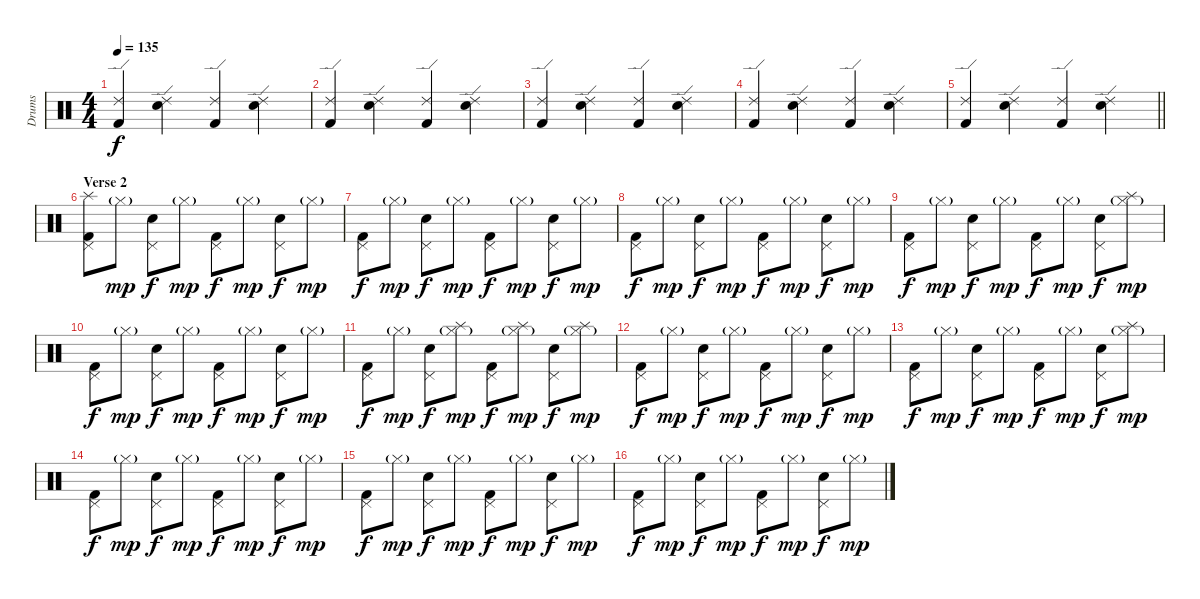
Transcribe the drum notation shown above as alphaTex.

\track ("Drums" "Drums") {instrument percussion}
\staff {score}
\articulation defaults
\ts (4 4)
\tempo 135
\clef neutral
\ks c
("Kick (hit) 2" "Ride (edge) 2").4{dy f} ("Snare (hit) 2" "Ride (edge) 2").4 ("Kick (hit) 2" "Ride (edge) 2").4 ("Snare (hit) 2" "Ride (edge) 2").4 |
("Kick (hit) 2" "Ride (edge) 2").4 ("Snare (hit) 2" "Ride (edge) 2").4 ("Kick (hit) 2" "Ride (edge) 2").4 ("Snare (hit) 2" "Ride (edge) 2").4 |
("Kick (hit) 2" "Ride (edge) 2").4 ("Snare (hit) 2" "Ride (edge) 2").4 ("Kick (hit) 2" "Ride (edge) 2").4 ("Snare (hit) 2" "Ride (edge) 2").4 |
("Kick (hit) 2" "Ride (edge) 2").4 ("Snare (hit) 2" "Ride (edge) 2").4 ("Kick (hit) 2" "Ride (edge) 2").4 ("Snare (hit) 2" "Ride (edge) 2").4 |
\barLineRight lightlight
("Kick (hit) 2" "Ride (edge) 2").4 ("Snare (hit) 2" "Ride (edge) 2").4 ("Kick (hit) 2" "Ride (edge) 2").4 ("Snare (hit) 2" "Ride (edge) 2").4 |
\section ("" "Verse 2")
("Kick (hit) 2" "Pedal Hi-Hat (hit)" "Splash (hit)").8 "Hi-Hat (closed)"{g}.8{dy mp} ("Snare (hit) 2" "Pedal Hi-Hat (hit)").8{dy f} "Hi-Hat (closed)"{g}.8{dy mp} ("Kick (hit) 2" "Pedal Hi-Hat (hit)").8{dy f} "Hi-Hat (closed)"{g}.8{dy mp} ("Snare (hit) 2" "Pedal Hi-Hat (hit)").8{dy f} "Hi-Hat (closed)"{g}.8{dy mp} |
("Kick (hit) 2" "Pedal Hi-Hat (hit)").8{dy f} "Hi-Hat (closed)"{g}.8{dy mp} ("Snare (hit) 2" "Pedal Hi-Hat (hit)").8{dy f} "Hi-Hat (closed)"{g}.8{dy mp} ("Kick (hit) 2" "Pedal Hi-Hat (hit)").8{dy f} "Hi-Hat (closed)"{g}.8{dy mp} ("Snare (hit) 2" "Pedal Hi-Hat (hit)").8{dy f} "Hi-Hat (closed)"{g}.8{dy mp} |
("Kick (hit) 2" "Pedal Hi-Hat (hit)").8{dy f} "Hi-Hat (closed)"{g}.8{dy mp} ("Snare (hit) 2" "Pedal Hi-Hat (hit)").8{dy f} "Hi-Hat (closed)"{g}.8{dy mp} ("Kick (hit) 2" "Pedal Hi-Hat (hit)").8{dy f} "Hi-Hat (closed)"{g}.8{dy mp} ("Snare (hit) 2" "Pedal Hi-Hat (hit)").8{dy f} "Hi-Hat (closed)"{g}.8{dy mp} |
("Kick (hit) 2" "Pedal Hi-Hat (hit)").8{dy f} "Hi-Hat (closed)"{g}.8{dy mp} ("Snare (hit) 2" "Pedal Hi-Hat (hit)").8{dy f} "Hi-Hat (closed)"{g}.8{dy mp} ("Kick (hit) 2" "Pedal Hi-Hat (hit)").8{dy f} "Hi-Hat (closed)"{g}.8{dy mp} ("Snare (hit) 2" "Pedal Hi-Hat (hit)").8{dy f} ("Hi-Hat (closed)"{g} "Splash (hit)").8{dy mp} |
("Kick (hit) 2" "Pedal Hi-Hat (hit)").8{dy f} "Hi-Hat (closed)"{g}.8{dy mp} ("Snare (hit) 2" "Pedal Hi-Hat (hit)").8{dy f} "Hi-Hat (closed)"{g}.8{dy mp} ("Kick (hit) 2" "Pedal Hi-Hat (hit)").8{dy f} "Hi-Hat (closed)"{g}.8{dy mp} ("Snare (hit) 2" "Pedal Hi-Hat (hit)").8{dy f} "Hi-Hat (closed)"{g}.8{dy mp} |
("Kick (hit) 2" "Pedal Hi-Hat (hit)").8{dy f} "Hi-Hat (closed)"{g}.8{dy mp} ("Snare (hit) 2" "Pedal Hi-Hat (hit)").8{dy f} ("Hi-Hat (closed)"{g} "Splash (hit)").8{dy mp} ("Kick (hit) 2" "Pedal Hi-Hat (hit)").8{dy f} ("Hi-Hat (closed)"{g} "Splash (hit)").8{dy mp} ("Snare (hit) 2" "Pedal Hi-Hat (hit)").8{dy f} ("Hi-Hat (closed)"{g} "Splash (hit)").8{dy mp} |
("Kick (hit) 2" "Pedal Hi-Hat (hit)").8{dy f} "Hi-Hat (closed)"{g}.8{dy mp} ("Snare (hit) 2" "Pedal Hi-Hat (hit)").8{dy f} "Hi-Hat (closed)"{g}.8{dy mp} ("Kick (hit) 2" "Pedal Hi-Hat (hit)").8{dy f} "Hi-Hat (closed)"{g}.8{dy mp} ("Snare (hit) 2" "Pedal Hi-Hat (hit)").8{dy f} "Hi-Hat (closed)"{g}.8{dy mp} |
("Kick (hit) 2" "Pedal Hi-Hat (hit)").8{dy f} "Hi-Hat (closed)"{g}.8{dy mp} ("Snare (hit) 2" "Pedal Hi-Hat (hit)").8{dy f} "Hi-Hat (closed)"{g}.8{dy mp} ("Kick (hit) 2" "Pedal Hi-Hat (hit)").8{dy f} "Hi-Hat (closed)"{g}.8{dy mp} ("Snare (hit) 2" "Pedal Hi-Hat (hit)").8{dy f} ("Hi-Hat (closed)"{g} "Splash (hit)").8{dy mp} |
("Kick (hit) 2" "Pedal Hi-Hat (hit)").8{dy f} "Hi-Hat (closed)"{g}.8{dy mp} ("Snare (hit) 2" "Pedal Hi-Hat (hit)").8{dy f} "Hi-Hat (closed)"{g}.8{dy mp} ("Kick (hit) 2" "Pedal Hi-Hat (hit)").8{dy f} "Hi-Hat (closed)"{g}.8{dy mp} ("Snare (hit) 2" "Pedal Hi-Hat (hit)").8{dy f} "Hi-Hat (closed)"{g}.8{dy mp} |
("Kick (hit) 2" "Pedal Hi-Hat (hit)").8{dy f} "Hi-Hat (closed)"{g}.8{dy mp} ("Snare (hit) 2" "Pedal Hi-Hat (hit)").8{dy f} "Hi-Hat (closed)"{g}.8{dy mp} ("Kick (hit) 2" "Pedal Hi-Hat (hit)").8{dy f} "Hi-Hat (closed)"{g}.8{dy mp} ("Snare (hit) 2" "Pedal Hi-Hat (hit)").8{dy f} "Hi-Hat (closed)"{g}.8{dy mp} |
("Kick (hit) 2" "Pedal Hi-Hat (hit)").8{dy f} "Hi-Hat (closed)"{g}.8{dy mp} ("Snare (hit) 2" "Pedal Hi-Hat (hit)").8{dy f} "Hi-Hat (closed)"{g}.8{dy mp} ("Kick (hit) 2" "Pedal Hi-Hat (hit)").8{dy f} "Hi-Hat (closed)"{g}.8{dy mp} ("Snare (hit) 2" "Pedal Hi-Hat (hit)").8{dy f} "Hi-Hat (closed)"{g}.8{dy mp}
